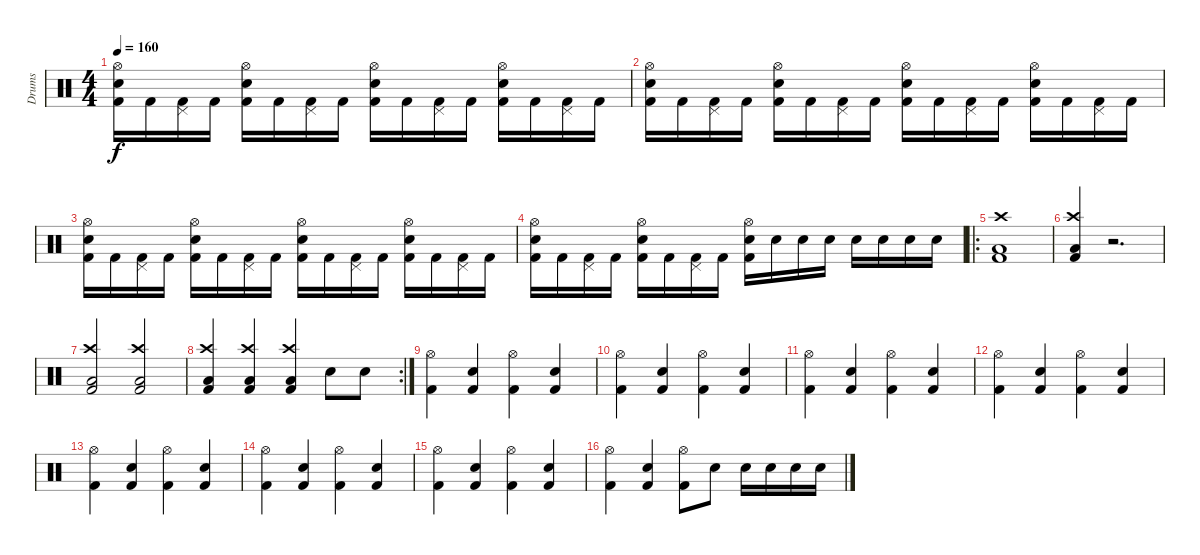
\track ("Drums" "Drums") {instrument percussion}
\staff {score}
\articulation defaults
\ts (4 4)
\tempo 160
\clef neutral
\ks c
("Hi-Hat (open)" "Electric Snare (hit)" "Kick (hit) 2").16{dy f} "Kick (hit) 2".16 ("Pedal Hi-Hat (hit)" "Kick (hit) 2").16 "Kick (hit) 2".16 ("Hi-Hat (open)" "Snare (hit) 2" "Kick (hit) 2").16 "Kick (hit) 2".16 ("Pedal Hi-Hat (hit)" "Kick (hit) 2").16 "Kick (hit) 2".16 ("Hi-Hat (open)" "Electric Snare (hit)" "Kick (hit) 2").16 "Kick (hit) 2".16 ("Pedal Hi-Hat (hit)" "Kick (hit) 2").16 "Kick (hit) 2".16 ("Hi-Hat (open)" "Snare (hit) 2" "Kick (hit) 2").16 "Kick (hit) 2".16 ("Pedal Hi-Hat (hit)" "Kick (hit) 2").16 "Kick (hit) 2".16 |
("Hi-Hat (open)" "Electric Snare (hit)" "Kick (hit) 2").16 "Kick (hit) 2".16 ("Pedal Hi-Hat (hit)" "Kick (hit) 2").16 "Kick (hit) 2".16 ("Hi-Hat (open)" "Snare (hit) 2" "Kick (hit) 2").16 "Kick (hit) 2".16 ("Pedal Hi-Hat (hit)" "Kick (hit) 2").16 "Kick (hit) 2".16 ("Hi-Hat (open)" "Electric Snare (hit)" "Kick (hit) 2").16 "Kick (hit) 2".16 ("Pedal Hi-Hat (hit)" "Kick (hit) 2").16 "Kick (hit) 2".16 ("Hi-Hat (open)" "Snare (hit) 2" "Kick (hit) 2").16 "Kick (hit) 2".16 ("Pedal Hi-Hat (hit)" "Kick (hit) 2").16 "Kick (hit) 2".16 |
("Hi-Hat (open)" "Electric Snare (hit)" "Kick (hit) 2").16 "Kick (hit) 2".16 ("Pedal Hi-Hat (hit)" "Kick (hit) 2").16 "Kick (hit) 2".16 ("Hi-Hat (open)" "Snare (hit) 2" "Kick (hit) 2").16 "Kick (hit) 2".16 ("Pedal Hi-Hat (hit)" "Kick (hit) 2").16 "Kick (hit) 2".16 ("Hi-Hat (open)" "Electric Snare (hit)" "Kick (hit) 2").16 "Kick (hit) 2".16 ("Pedal Hi-Hat (hit)" "Kick (hit) 2").16 "Kick (hit) 2".16 ("Hi-Hat (open)" "Snare (hit) 2" "Kick (hit) 2").16 "Kick (hit) 2".16 ("Pedal Hi-Hat (hit)" "Kick (hit) 2").16 "Kick (hit) 2".16 |
("Hi-Hat (open)" "Electric Snare (hit)" "Kick (hit) 2").16 "Kick (hit) 2".16 ("Pedal Hi-Hat (hit)" "Kick (hit) 2").16 "Kick (hit) 2".16 ("Hi-Hat (open)" "Snare (hit) 2" "Kick (hit) 2").16 "Kick (hit) 2".16 ("Pedal Hi-Hat (hit)" "Kick (hit) 2").16 "Kick (hit) 2".16 ("Hi-Hat (open)" "Snare (hit) 2" "Kick (hit) 2").16 "Snare (hit) 2".16 "Snare (hit) 2".16 "Snare (hit) 2".16 "Snare (hit) 2".16 "Snare (hit) 2".16 "Snare (hit) 2".16 "Snare (hit) 2".16 |
\ro
("Crash high (hit)" "Low Floor Tom (hit)" "Kick (hit) 2").1 |
("Crash high (hit)" "Low Floor Tom (hit)" "Kick (hit) 2").4 r.2{d} |
("Crash high (hit)" "Low Floor Tom (hit)" "Kick (hit) 2").2 ("Crash high (hit)" "Low Floor Tom (hit)" "Kick (hit) 2").2 |
\rc 2
("Crash high (hit)" "Low Floor Tom (hit)" "Kick (hit) 2").4 ("Crash high (hit)" "Low Floor Tom (hit)" "Kick (hit) 2").4 ("Crash high (hit)" "Low Floor Tom (hit)" "Kick (hit) 2").4 "Snare (hit) 2".8 "Snare (hit) 2".8 |
("Hi-Hat (open)" "Kick (hit) 2").4 ("Snare (hit) 2" "Kick (hit) 2").4 ("Hi-Hat (open)" "Kick (hit) 2").4 ("Snare (hit) 2" "Kick (hit) 2").4 |
("Hi-Hat (open)" "Kick (hit) 2").4 ("Snare (hit) 2" "Kick (hit) 2").4 ("Hi-Hat (open)" "Kick (hit) 2").4 ("Snare (hit) 2" "Kick (hit) 2").4 |
("Hi-Hat (open)" "Kick (hit) 2").4 ("Snare (hit) 2" "Kick (hit) 2").4 ("Hi-Hat (open)" "Kick (hit) 2").4 ("Snare (hit) 2" "Kick (hit) 2").4 |
("Hi-Hat (open)" "Kick (hit) 2").4 ("Snare (hit) 2" "Kick (hit) 2").4 ("Hi-Hat (open)" "Kick (hit) 2").4 ("Snare (hit) 2" "Kick (hit) 2").4 |
("Hi-Hat (open)" "Kick (hit) 2").4 ("Snare (hit) 2" "Kick (hit) 2").4 ("Hi-Hat (open)" "Kick (hit) 2").4 ("Snare (hit) 2" "Kick (hit) 2").4 |
("Hi-Hat (open)" "Kick (hit) 2").4 ("Snare (hit) 2" "Kick (hit) 2").4 ("Hi-Hat (open)" "Kick (hit) 2").4 ("Snare (hit) 2" "Kick (hit) 2").4 |
("Hi-Hat (open)" "Kick (hit) 2").4 ("Snare (hit) 2" "Kick (hit) 2").4 ("Hi-Hat (open)" "Kick (hit) 2").4 ("Snare (hit) 2" "Kick (hit) 2").4 |
("Hi-Hat (open)" "Kick (hit) 2").4 ("Snare (hit) 2" "Kick (hit) 2").4 ("Hi-Hat (open)" "Kick (hit) 2").8 "Electric Snare (hit)".8 "Electric Snare (hit)".16 "Electric Snare (hit)".16 "Electric Snare (hit)".16 "Electric Snare (hit)".16
